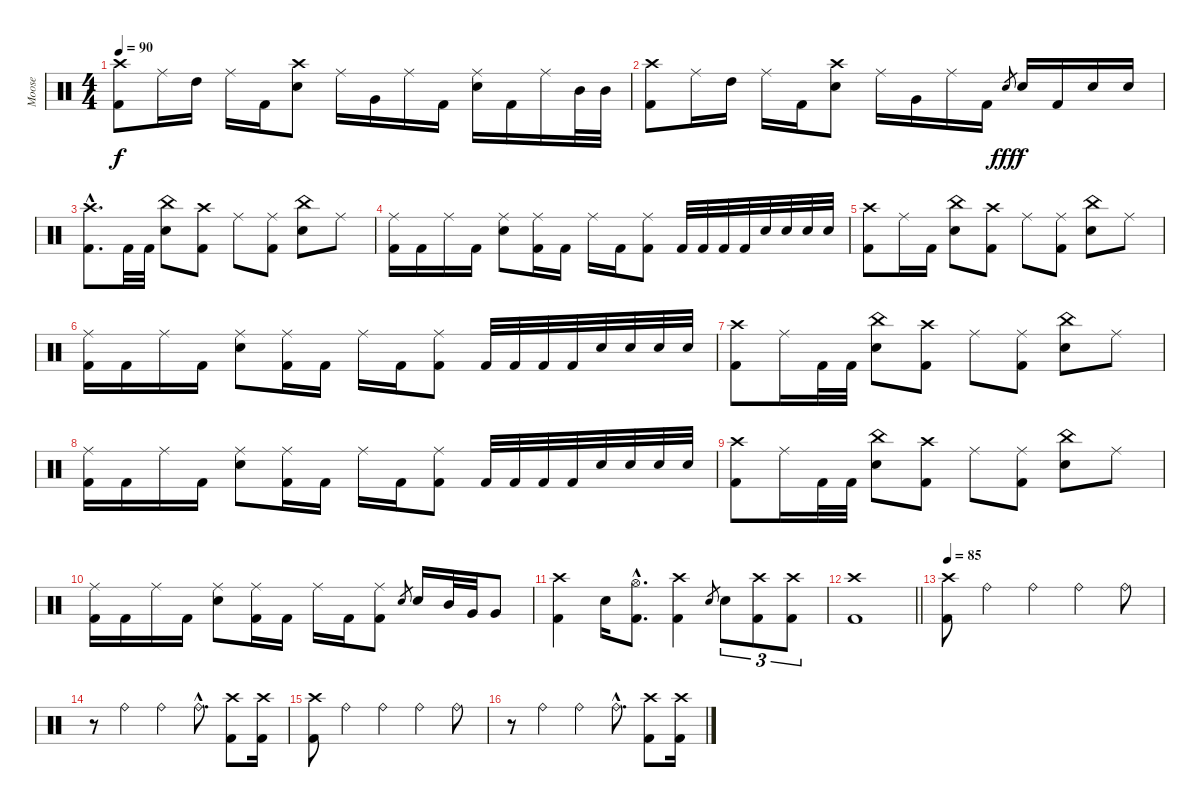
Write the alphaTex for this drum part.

\track ("Moose" "Moose") {instrument percussion}
\staff {score}
\articulation defaults
\ts (4 4)
\tempo 90
\clef neutral
\ks c
("Crash high (hit)" "Kick (hit) 2").8{dy f} "Ride (middle)".16 "High Tom (hit)".16 "Ride (middle)".16 "Kick (hit) 2".16 ("Crash high (hit)" "Snare (hit) 2").8 "Ride (middle)".16 "Very Low Tom (hit)".16 "Ride (middle)".16 "Kick (hit) 2".16 ("Ride (middle)" "Snare (hit) 2").16 "Kick (hit) 2".16 "Ride (middle)".16 "Mid Tom (hit)".32 "Mid Tom (hit)".32 |
("Crash high (hit)" "Kick (hit) 2").8 "Ride (middle)".16 "High Tom (hit)".16 "Ride (middle)".16 "Kick (hit) 2".16 ("Crash high (hit)" "Snare (hit) 2").8 "Ride (middle)".16 "Very Low Tom (hit)".16 "Ride (middle)".16 "Kick (hit) 2".16 "Snare (hit) 2".8{gr dy fff} "Snare (hit) 2".16{dy f} "Kick (hit) 2".16 "Snare (hit) 2".16 "Snare (hit) 2".16 |
("Crash high (hit)"{hac} "Kick (hit) 2"{hac}).8{d} "Kick (hit) 2".32 "Kick (hit) 2".32 ("China (hit)" "Snare (hit) 2").8 ("Crash high (hit)" "Kick (hit) 2").8 "Ride (middle)".8 ("Ride (middle)" "Kick (hit) 2").8 ("China (hit)" "Snare (hit) 2").8 "Ride (middle)".8 |
("Ride (middle)" "Kick (hit) 2").16 "Kick (hit) 2".16 "Ride (middle)".16 "Kick (hit) 2".16 ("Ride (middle)" "Snare (hit) 2").8 ("Ride (middle)" "Kick (hit) 2").16 "Kick (hit) 2".16 "Ride (middle)".16 "Kick (hit) 2".16 ("Ride (middle)" "Kick (hit) 2").8 "Kick (hit) 2".32 "Kick (hit) 2".32 "Kick (hit) 2".32 "Kick (hit) 2".32 "Snare (hit) 2".32 "Snare (hit) 2".32 "Snare (hit) 2".32 "Snare (hit) 2".32 |
("Crash high (hit)" "Kick (hit) 2").8 "Ride (middle)".16 "Kick (hit) 2".16 ("China (hit)" "Snare (hit) 2").8 ("Crash high (hit)" "Kick (hit) 2").8 "Ride (middle)".8 ("Ride (middle)" "Kick (hit) 2").8 ("China (hit)" "Snare (hit) 2").8 "Ride (middle)".8 |
("Ride (middle)" "Kick (hit) 2").16 "Kick (hit) 2".16 "Ride (middle)".16 "Kick (hit) 2".16 ("Ride (middle)" "Snare (hit) 2").8 ("Ride (middle)" "Kick (hit) 2").16 "Kick (hit) 2".16 "Ride (middle)".16 "Kick (hit) 2".16 ("Ride (middle)" "Kick (hit) 2").8 "Kick (hit) 2".32 "Kick (hit) 2".32 "Kick (hit) 2".32 "Kick (hit) 2".32 "Snare (hit) 2".32 "Snare (hit) 2".32 "Snare (hit) 2".32 "Snare (hit) 2".32 |
("Crash high (hit)" "Kick (hit) 2").8 "Ride (middle)".16 "Kick (hit) 2".32 "Kick (hit) 2".32 ("China (hit)" "Snare (hit) 2").8 ("Crash high (hit)" "Kick (hit) 2").8 "Ride (middle)".8 ("Ride (middle)" "Kick (hit) 2").8 ("China (hit)" "Snare (hit) 2").8 "Ride (middle)".8 |
("Ride (middle)" "Kick (hit) 2").16 "Kick (hit) 2".16 "Ride (middle)".16 "Kick (hit) 2".16 ("Ride (middle)" "Snare (hit) 2").8 ("Ride (middle)" "Kick (hit) 2").16 "Kick (hit) 2".16 "Ride (middle)".16 "Kick (hit) 2".16 ("Ride (middle)" "Kick (hit) 2").8 "Kick (hit) 2".32 "Kick (hit) 2".32 "Kick (hit) 2".32 "Kick (hit) 2".32 "Snare (hit) 2".32 "Snare (hit) 2".32 "Snare (hit) 2".32 "Snare (hit) 2".32 |
("Crash high (hit)" "Kick (hit) 2").8 "Ride (middle)".16 "Kick (hit) 2".32 "Kick (hit) 2".32 ("China (hit)" "Snare (hit) 2").8 ("Crash high (hit)" "Kick (hit) 2").8 "Ride (middle)".8 ("Ride (middle)" "Kick (hit) 2").8 ("China (hit)" "Snare (hit) 2").8 "Ride (middle)".8 |
("Ride (middle)" "Kick (hit) 2").16 "Kick (hit) 2".16 "Ride (middle)".16 "Kick (hit) 2".16 ("Ride (middle)" "Snare (hit) 2").8 ("Ride (middle)" "Kick (hit) 2").16 "Kick (hit) 2".16 "Ride (middle)".16 "Kick (hit) 2".16 ("Ride (middle)" "Kick (hit) 2").8 "Snare (hit) 2".8{gr} "Snare (hit) 2".16 "Mid Tom (hit)".32 "Very Low Tom (hit)".32 "Very Low Tom (hit)".8 |
("Crash high (hit)" "Kick (hit) 2").4 "Snare (hit) 2".16 ("Hi-Hat (open)"{hac} "Kick (hit) 2"{hac}).8{d} ("Crash high (hit)" "Kick (hit) 2").4 "Snare (hit) 2".8{gr} "Snare (hit) 2".8{tu (3 2)} ("Crash high (hit)" "Kick (hit) 2").8{tu (3 2)} ("Crash high (hit)" "Kick (hit) 2").8{tu (3 2)} |
\barLineRight lightlight
("Crash high (hit)" "Kick (hit) 2").1 |
\tempo 85
("Crash high (hit)" "Kick (hit) 2").8 "Ride (bell)".4 "Ride (bell)".4 "Ride (bell)".4 "Ride (bell)".8 |
r.8 "Ride (bell)".4 "Ride (bell)".4 "Ride (bell)"{hac}.8{d} ("Crash high (hit)" "Kick (hit) 2").8 ("Crash high (hit)" "Kick (hit) 2").16 |
("Crash high (hit)" "Kick (hit) 2").8 "Ride (bell)".4 "Ride (bell)".4 "Ride (bell)".4 "Ride (bell)".8 |
r.8 "Ride (bell)".4 "Ride (bell)".4 "Ride (bell)"{hac}.8{d} ("Crash high (hit)" "Kick (hit) 2").8 ("Crash high (hit)" "Kick (hit) 2").16
